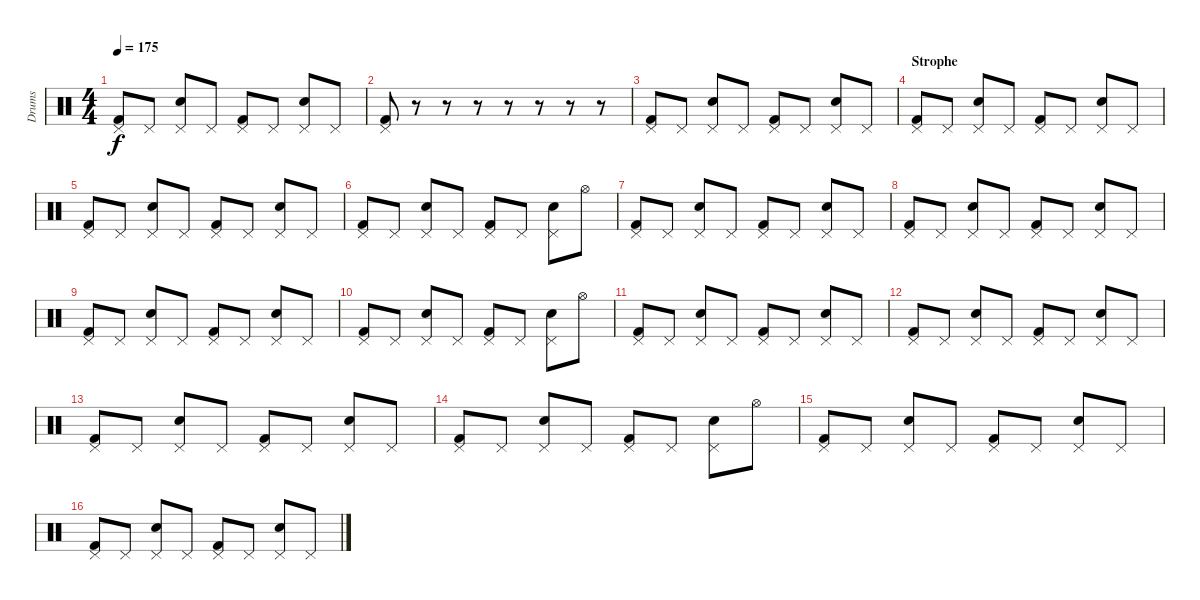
\track ("Drums" "Drums") {instrument percussion}
\staff {score}
\articulation defaults
\ts (4 4)
\tempo 175
\clef neutral
\ks c
("Pedal Hi-Hat (hit)" "Kick (hit) 2").8{dy f} "Pedal Hi-Hat (hit)".8 ("Pedal Hi-Hat (hit)" "Snare (hit) 2").8 "Pedal Hi-Hat (hit)".8 ("Pedal Hi-Hat (hit)" "Kick (hit) 2").8 "Pedal Hi-Hat (hit)".8 ("Pedal Hi-Hat (hit)" "Snare (hit) 2").8 "Pedal Hi-Hat (hit)".8 |
("Pedal Hi-Hat (hit)" "Kick (hit) 2").8 r.8 r.8 r.8 r.8 r.8 r.8 r.8 |
("Pedal Hi-Hat (hit)" "Kick (hit) 2").8 "Pedal Hi-Hat (hit)".8 ("Pedal Hi-Hat (hit)" "Snare (hit) 2").8 "Pedal Hi-Hat (hit)".8 ("Pedal Hi-Hat (hit)" "Kick (hit) 2").8 "Pedal Hi-Hat (hit)".8 ("Pedal Hi-Hat (hit)" "Snare (hit) 2").8 "Pedal Hi-Hat (hit)".8 |
\section ("" "Strophe")
("Pedal Hi-Hat (hit)" "Kick (hit) 2").8 "Pedal Hi-Hat (hit)".8 ("Pedal Hi-Hat (hit)" "Snare (hit) 2").8 "Pedal Hi-Hat (hit)".8 ("Pedal Hi-Hat (hit)" "Kick (hit) 2").8 "Pedal Hi-Hat (hit)".8 ("Pedal Hi-Hat (hit)" "Snare (hit) 2").8 "Pedal Hi-Hat (hit)".8 |
("Pedal Hi-Hat (hit)" "Kick (hit) 2").8 "Pedal Hi-Hat (hit)".8 ("Pedal Hi-Hat (hit)" "Snare (hit) 2").8 "Pedal Hi-Hat (hit)".8 ("Pedal Hi-Hat (hit)" "Kick (hit) 2").8 "Pedal Hi-Hat (hit)".8 ("Pedal Hi-Hat (hit)" "Snare (hit) 2").8 "Pedal Hi-Hat (hit)".8 |
("Pedal Hi-Hat (hit)" "Kick (hit) 2").8 "Pedal Hi-Hat (hit)".8 ("Pedal Hi-Hat (hit)" "Snare (hit) 2").8 "Pedal Hi-Hat (hit)".8 ("Pedal Hi-Hat (hit)" "Kick (hit) 2").8 "Pedal Hi-Hat (hit)".8 ("Pedal Hi-Hat (hit)" "Snare (hit) 2").8 "Hi-Hat (open)".8 |
("Pedal Hi-Hat (hit)" "Kick (hit) 2").8 "Pedal Hi-Hat (hit)".8 ("Pedal Hi-Hat (hit)" "Snare (hit) 2").8 "Pedal Hi-Hat (hit)".8 ("Pedal Hi-Hat (hit)" "Kick (hit) 2").8 "Pedal Hi-Hat (hit)".8 ("Pedal Hi-Hat (hit)" "Snare (hit) 2").8 "Pedal Hi-Hat (hit)".8 |
("Pedal Hi-Hat (hit)" "Kick (hit) 2").8 "Pedal Hi-Hat (hit)".8 ("Pedal Hi-Hat (hit)" "Snare (hit) 2").8 "Pedal Hi-Hat (hit)".8 ("Pedal Hi-Hat (hit)" "Kick (hit) 2").8 "Pedal Hi-Hat (hit)".8 ("Pedal Hi-Hat (hit)" "Snare (hit) 2").8 "Pedal Hi-Hat (hit)".8 |
("Pedal Hi-Hat (hit)" "Kick (hit) 2").8 "Pedal Hi-Hat (hit)".8 ("Pedal Hi-Hat (hit)" "Snare (hit) 2").8 "Pedal Hi-Hat (hit)".8 ("Pedal Hi-Hat (hit)" "Kick (hit) 2").8 "Pedal Hi-Hat (hit)".8 ("Pedal Hi-Hat (hit)" "Snare (hit) 2").8 "Pedal Hi-Hat (hit)".8 |
("Pedal Hi-Hat (hit)" "Kick (hit) 2").8 "Pedal Hi-Hat (hit)".8 ("Pedal Hi-Hat (hit)" "Snare (hit) 2").8 "Pedal Hi-Hat (hit)".8 ("Pedal Hi-Hat (hit)" "Kick (hit) 2").8 "Pedal Hi-Hat (hit)".8 ("Pedal Hi-Hat (hit)" "Snare (hit) 2").8 "Hi-Hat (open)".8 |
("Pedal Hi-Hat (hit)" "Kick (hit) 2").8 "Pedal Hi-Hat (hit)".8 ("Pedal Hi-Hat (hit)" "Snare (hit) 2").8 "Pedal Hi-Hat (hit)".8 ("Pedal Hi-Hat (hit)" "Kick (hit) 2").8 "Pedal Hi-Hat (hit)".8 ("Pedal Hi-Hat (hit)" "Snare (hit) 2").8 "Pedal Hi-Hat (hit)".8 |
("Pedal Hi-Hat (hit)" "Kick (hit) 2").8 "Pedal Hi-Hat (hit)".8 ("Pedal Hi-Hat (hit)" "Snare (hit) 2").8 "Pedal Hi-Hat (hit)".8 ("Pedal Hi-Hat (hit)" "Kick (hit) 2").8 "Pedal Hi-Hat (hit)".8 ("Pedal Hi-Hat (hit)" "Snare (hit) 2").8 "Pedal Hi-Hat (hit)".8 |
("Pedal Hi-Hat (hit)" "Kick (hit) 2").8 "Pedal Hi-Hat (hit)".8 ("Pedal Hi-Hat (hit)" "Snare (hit) 2").8 "Pedal Hi-Hat (hit)".8 ("Pedal Hi-Hat (hit)" "Kick (hit) 2").8 "Pedal Hi-Hat (hit)".8 ("Pedal Hi-Hat (hit)" "Snare (hit) 2").8 "Pedal Hi-Hat (hit)".8 |
("Pedal Hi-Hat (hit)" "Kick (hit) 2").8 "Pedal Hi-Hat (hit)".8 ("Pedal Hi-Hat (hit)" "Snare (hit) 2").8 "Pedal Hi-Hat (hit)".8 ("Pedal Hi-Hat (hit)" "Kick (hit) 2").8 "Pedal Hi-Hat (hit)".8 ("Pedal Hi-Hat (hit)" "Snare (hit) 2").8 "Hi-Hat (open)".8 |
("Pedal Hi-Hat (hit)" "Kick (hit) 2").8 "Pedal Hi-Hat (hit)".8 ("Pedal Hi-Hat (hit)" "Snare (hit) 2").8 "Pedal Hi-Hat (hit)".8 ("Pedal Hi-Hat (hit)" "Kick (hit) 2").8 "Pedal Hi-Hat (hit)".8 ("Pedal Hi-Hat (hit)" "Snare (hit) 2").8 "Pedal Hi-Hat (hit)".8 |
("Pedal Hi-Hat (hit)" "Kick (hit) 2").8 "Pedal Hi-Hat (hit)".8 ("Pedal Hi-Hat (hit)" "Snare (hit) 2").8 "Pedal Hi-Hat (hit)".8 ("Pedal Hi-Hat (hit)" "Kick (hit) 2").8 "Pedal Hi-Hat (hit)".8 ("Pedal Hi-Hat (hit)" "Snare (hit) 2").8 "Pedal Hi-Hat (hit)".8
